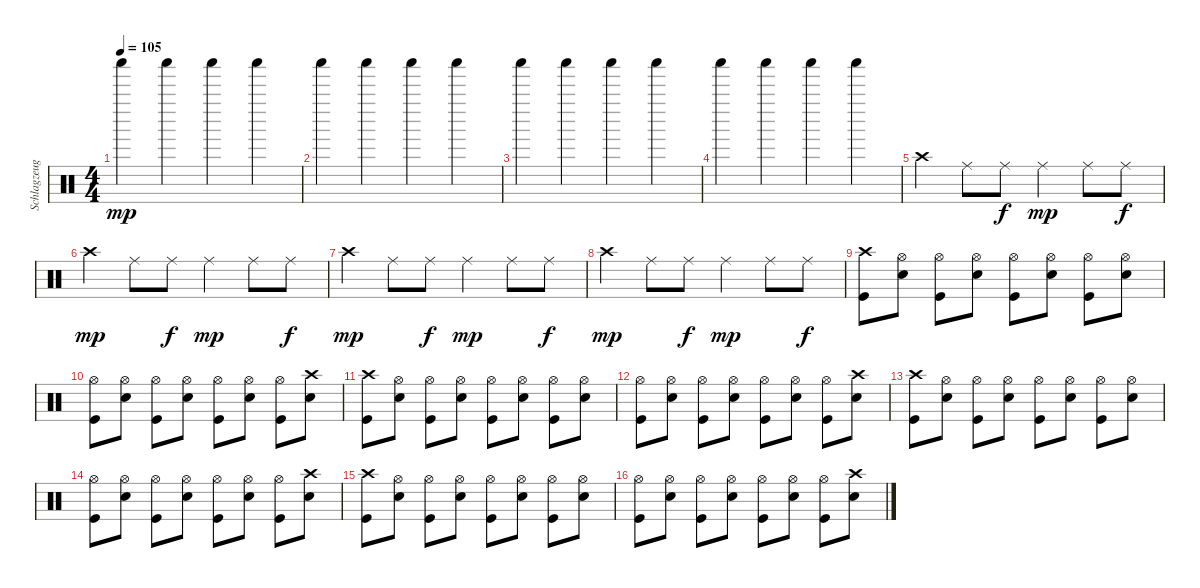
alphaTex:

\track ("Schlagzeug" "Schlagzeug") {instrument percussion}
\staff {score}
\articulation defaults
\ts (4 4)
\tempo 105
\clef neutral
\ks c "Shaker (hit)".4{dy mp} "Shaker (hit)".4 "Shaker (hit)".4 "Shaker (hit)".4
|
"Shaker (hit)".4 "Shaker (hit)".4 "Shaker (hit)".4 "Shaker (hit)".4 |
"Shaker (hit)".4 "Shaker (hit)".4 "Shaker (hit)".4 "Shaker (hit)".4 |
"Shaker (hit)".4 "Shaker (hit)".4 "Shaker (hit)".4 "Shaker (hit)".4 |
"Crash high (hit)".4 "Ride (middle)".8 "Ride (middle)".8{dy f} "Ride (middle)".4{dy mp} "Ride (middle)".8 "Ride (middle)".8{dy f} |
"Crash high (hit)".4{dy mp} "Ride (middle)".8 "Ride (middle)".8{dy f} "Ride (middle)".4{dy mp} "Ride (middle)".8 "Ride (middle)".8{dy f} |
"Crash high (hit)".4{dy mp} "Ride (middle)".8 "Ride (middle)".8{dy f} "Ride (middle)".4{dy mp} "Ride (middle)".8 "Ride (middle)".8{dy f} |
"Crash high (hit)".4{dy mp} "Ride (middle)".8 "Ride (middle)".8{dy f} "Ride (middle)".4{dy mp} "Ride (middle)".8 "Ride (middle)".8{dy f} |
("Crash high (hit)" "Kick (hit)").8 ("Hi-Hat (open)" "Snare (hit) 2").8 ("Hi-Hat (open)" "Kick (hit)").8 ("Hi-Hat (open)" "Snare (hit) 2").8 ("Hi-Hat (open)" "Kick (hit)").8 ("Hi-Hat (open)" "Snare (hit) 2").8 ("Hi-Hat (open)" "Kick (hit)").8 ("Hi-Hat (open)" "Snare (hit) 2").8 |
("Hi-Hat (open)" "Kick (hit)").8 ("Hi-Hat (open)" "Snare (hit) 2").8 ("Hi-Hat (open)" "Kick (hit)").8 ("Hi-Hat (open)" "Snare (hit) 2").8 ("Hi-Hat (open)" "Kick (hit)").8 ("Hi-Hat (open)" "Snare (hit) 2").8 ("Hi-Hat (open)" "Kick (hit)").8 ("Crash high (hit)" "Snare (hit) 2").8 |
("Crash high (hit)" "Kick (hit)").8 ("Hi-Hat (open)" "Snare (hit) 2").8 ("Hi-Hat (open)" "Kick (hit)").8 ("Hi-Hat (open)" "Snare (hit) 2").8 ("Hi-Hat (open)" "Kick (hit)").8 ("Hi-Hat (open)" "Snare (hit) 2").8 ("Hi-Hat (open)" "Kick (hit)").8 ("Hi-Hat (open)" "Snare (hit) 2").8 |
("Hi-Hat (open)" "Kick (hit)").8 ("Hi-Hat (open)" "Snare (hit) 2").8 ("Hi-Hat (open)" "Kick (hit)").8 ("Hi-Hat (open)" "Snare (hit) 2").8 ("Hi-Hat (open)" "Kick (hit)").8 ("Hi-Hat (open)" "Snare (hit) 2").8 ("Hi-Hat (open)" "Kick (hit)").8 ("Crash high (hit)" "Snare (hit) 2").8 |
("Crash high (hit)" "Kick (hit)").8 ("Hi-Hat (open)" "Snare (hit) 2").8 ("Hi-Hat (open)" "Kick (hit)").8 ("Hi-Hat (open)" "Snare (hit) 2").8 ("Hi-Hat (open)" "Kick (hit)").8 ("Hi-Hat (open)" "Snare (hit) 2").8 ("Hi-Hat (open)" "Kick (hit)").8 ("Hi-Hat (open)" "Snare (hit) 2").8 |
("Hi-Hat (open)" "Kick (hit)").8 ("Hi-Hat (open)" "Snare (hit) 2").8 ("Hi-Hat (open)" "Kick (hit)").8 ("Hi-Hat (open)" "Snare (hit) 2").8 ("Hi-Hat (open)" "Kick (hit)").8 ("Hi-Hat (open)" "Snare (hit) 2").8 ("Hi-Hat (open)" "Kick (hit)").8 ("Crash high (hit)" "Snare (hit) 2").8 |
("Crash high (hit)" "Kick (hit)").8 ("Hi-Hat (open)" "Snare (hit) 2").8 ("Hi-Hat (open)" "Kick (hit)").8 ("Hi-Hat (open)" "Snare (hit) 2").8 ("Hi-Hat (open)" "Kick (hit)").8 ("Hi-Hat (open)" "Snare (hit) 2").8 ("Hi-Hat (open)" "Kick (hit)").8 ("Hi-Hat (open)" "Snare (hit) 2").8 |
("Hi-Hat (open)" "Kick (hit)").8 ("Hi-Hat (open)" "Snare (hit) 2").8 ("Hi-Hat (open)" "Kick (hit)").8 ("Hi-Hat (open)" "Snare (hit) 2").8 ("Hi-Hat (open)" "Kick (hit)").8 ("Hi-Hat (open)" "Snare (hit) 2").8 ("Hi-Hat (open)" "Kick (hit)").8 ("Crash high (hit)" "Snare (hit) 2").8
